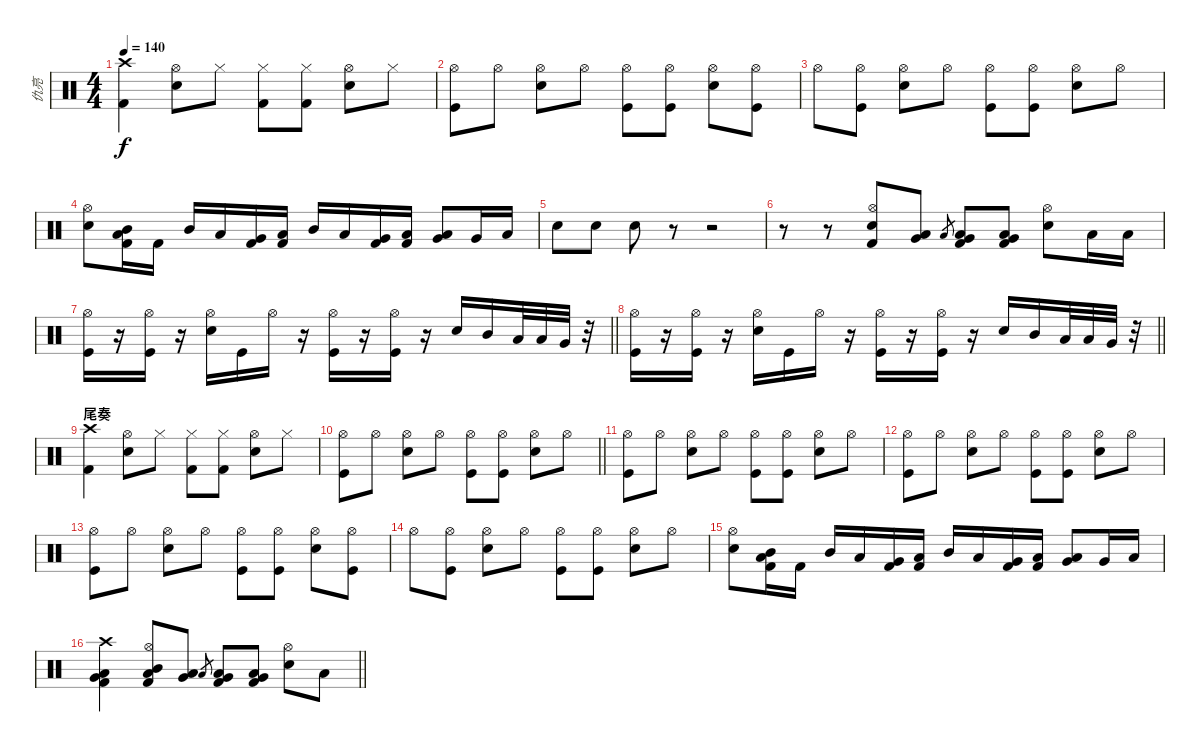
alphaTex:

\track ("仇亮" "仇亮") {instrument percussion}
\staff {score}
\articulation defaults
\ts (4 4)
\tempo 140
\clef neutral
\ks c
("Crash high (hit)" "Kick (hit) 2").4{dy f} ("Hi-Hat (open)" "Electric Snare (hit)").8 "Hi-Hat (closed)".8 ("Hi-Hat (closed)" "Kick (hit) 2").8 ("Hi-Hat (closed)" "Kick (hit) 2").8 ("Hi-Hat (open)" "Electric Snare (hit)").8 "Hi-Hat (closed)".8 |
("Hi-Hat (open)" "Kick (hit)").8 "Hi-Hat (open)".8 ("Hi-Hat (open)" "Snare (hit) 2").8 "Hi-Hat (open)".8 ("Hi-Hat (open)" "Kick (hit)").8 ("Hi-Hat (open)" "Kick (hit)").8 ("Hi-Hat (open)" "Snare (hit) 2").8 ("Hi-Hat (open)" "Kick (hit)").8 |
"Hi-Hat (open)".8 ("Hi-Hat (open)" "Kick (hit)").8 ("Hi-Hat (open)" "Snare (hit) 2").8 "Hi-Hat (open)".8 ("Hi-Hat (open)" "Kick (hit)").8 ("Hi-Hat (open)" "Kick (hit)").8 ("Hi-Hat (open)" "Snare (hit) 2").8 "Hi-Hat (open)".8 |
("Hi-Hat (open)" "Electric Snare (hit)").8 ("Mid Tom (hit)" "Low Tom (hit)" "Kick (hit) 2").16 "Kick (hit) 2".16 "Mid Tom (hit)".16 "Low Tom (hit)".16 ("Very Low Tom (hit)" "Kick (hit) 2").16 ("Low Floor Tom (hit)" "Kick (hit) 2").16 "Mid Tom (hit)".16 "Low Tom (hit)".16 ("Very Low Tom (hit)" "Kick (hit) 2").16 ("Low Floor Tom (hit)" "Kick (hit) 2").16 ("Low Tom (hit)" "Very Low Tom (hit)").8 "Very Low Tom (hit)".16 "Low Floor Tom (hit)".16 |
"Electric Snare (hit)".8 "Electric Snare (hit)".8 "Electric Snare (hit)".8 r.8 r.2 |
r.8 r.8 ("Hi-Hat (open)" "Electric Snare (hit)" "Kick (hit) 2").8 ("Low Tom (hit)" "Very Low Tom (hit)").8 "Low Tom (hit)".8{gr} ("Low Tom (hit)" "Very Low Tom (hit)" "Kick (hit) 2").8 ("Low Tom (hit)" "Very Low Tom (hit)" "Kick (hit) 2").8 ("Hi-Hat (open)" "Electric Snare (hit)").8 "Low Tom (hit)".16 "Low Tom (hit)".16 |
\barLineRight lightlight
("Hi-Hat (open)" "Kick (hit)").16 r.16 ("Hi-Hat (open)" "Kick (hit)").16 r.16 ("Hi-Hat (open)" "Electric Snare (hit)").16 "Kick (hit)".16 "Hi-Hat (open)".16 r.16 ("Hi-Hat (open)" "Kick (hit)").16 r.16 ("Hi-Hat (open)" "Kick (hit)").16 r.16 "Electric Snare (hit)".16 "Mid Tom (hit)".16 "Low Tom (hit)".32 "Low Tom (hit)".32 "Very Low Tom (hit)".32 r.32 |
\barLineRight lightlight
("Hi-Hat (open)" "Kick (hit)").16 r.16 ("Hi-Hat (open)" "Kick (hit)").16 r.16 ("Hi-Hat (open)" "Electric Snare (hit)").16 "Kick (hit)".16 "Hi-Hat (open)".16 r.16 ("Hi-Hat (open)" "Kick (hit)").16 r.16 ("Hi-Hat (open)" "Kick (hit)").16 r.16 "Electric Snare (hit)".16 "Mid Tom (hit)".16 "Low Tom (hit)".32 "Low Tom (hit)".32 "Very Low Tom (hit)".32 r.32 |
\section ("" "尾奏")
("Crash high (hit)" "Kick (hit) 2").4 ("Hi-Hat (open)" "Electric Snare (hit)").8 "Hi-Hat (closed)".8 ("Hi-Hat (closed)" "Kick (hit) 2").8 ("Hi-Hat (closed)" "Kick (hit) 2").8 ("Hi-Hat (open)" "Electric Snare (hit)").8 "Hi-Hat (closed)".8 |
\barLineRight lightlight
("Hi-Hat (open)" "Kick (hit)").8 "Hi-Hat (open)".8 ("Hi-Hat (open)" "Snare (hit) 2").8 "Hi-Hat (open)".8 ("Hi-Hat (open)" "Kick (hit)").8 ("Hi-Hat (open)" "Kick (hit)").8 ("Hi-Hat (open)" "Snare (hit) 2").8 "Hi-Hat (open)".8 |
\section ("" "")
("Hi-Hat (open)" "Kick (hit)").8 "Hi-Hat (open)".8 ("Hi-Hat (open)" "Snare (hit) 2").8 "Hi-Hat (open)".8 ("Hi-Hat (open)" "Kick (hit)").8 ("Hi-Hat (open)" "Kick (hit)").8 ("Hi-Hat (open)" "Snare (hit) 2").8 "Hi-Hat (open)".8 |
("Hi-Hat (open)" "Kick (hit)").8 "Hi-Hat (open)".8 ("Hi-Hat (open)" "Snare (hit) 2").8 "Hi-Hat (open)".8 ("Hi-Hat (open)" "Kick (hit)").8 ("Hi-Hat (open)" "Kick (hit)").8 ("Hi-Hat (open)" "Snare (hit) 2").8 "Hi-Hat (open)".8 |
("Hi-Hat (open)" "Kick (hit)").8 "Hi-Hat (open)".8 ("Hi-Hat (open)" "Snare (hit) 2").8 "Hi-Hat (open)".8 ("Hi-Hat (open)" "Kick (hit)").8 ("Hi-Hat (open)" "Kick (hit)").8 ("Hi-Hat (open)" "Snare (hit) 2").8 ("Hi-Hat (open)" "Kick (hit)").8 |
"Hi-Hat (open)".8 ("Hi-Hat (open)" "Kick (hit)").8 ("Hi-Hat (open)" "Snare (hit) 2").8 "Hi-Hat (open)".8 ("Hi-Hat (open)" "Kick (hit)").8 ("Hi-Hat (open)" "Kick (hit)").8 ("Hi-Hat (open)" "Snare (hit) 2").8 "Hi-Hat (open)".8 |
("Hi-Hat (open)" "Electric Snare (hit)").8 ("Mid Tom (hit)" "Low Tom (hit)" "Kick (hit) 2").16 "Kick (hit) 2".16 "Mid Tom (hit)".16 "Low Tom (hit)".16 ("Very Low Tom (hit)" "Kick (hit) 2").16 ("Low Floor Tom (hit)" "Kick (hit) 2").16 "Mid Tom (hit)".16 "Low Tom (hit)".16 ("Very Low Tom (hit)" "Kick (hit) 2").16 ("Low Floor Tom (hit)" "Kick (hit) 2").16 ("Low Tom (hit)" "Very Low Tom (hit)").8 "Very Low Tom (hit)".16 "Low Floor Tom (hit)".16 |
\barLineRight lightlight
("Crash high (hit)" "Low Tom (hit)" "Very Low Tom (hit)" "Kick (hit) 2").4 ("Hi-Hat (open)" "Mid Tom (hit)" "Low Tom (hit)" "Kick (hit) 2").8 ("Low Tom (hit)" "Very Low Tom (hit)").8 "Low Tom (hit)".8{gr} ("Low Tom (hit)" "Very Low Tom (hit)" "Kick (hit) 2").8 ("Low Tom (hit)" "Very Low Tom (hit)" "Kick (hit) 2").8 ("Hi-Hat (open)" "Electric Snare (hit)").8 "Low Tom (hit)".8
